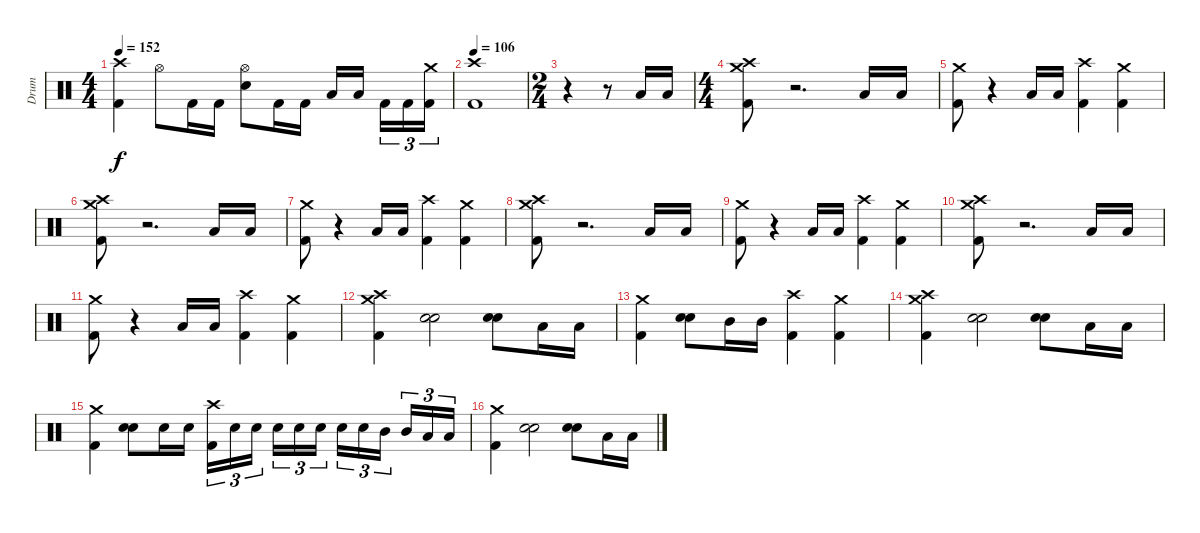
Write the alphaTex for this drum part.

\track ("Drum" "Drum") {instrument percussion}
\staff {score}
\articulation defaults
\ts (4 4)
\tempo 152
\clef neutral
\ks c
("Crash high (hit)" "Kick (hit) 2").4{dy f} "Hi-Hat (open)".8 "Kick (hit) 2".16 "Kick (hit) 2".16 ("Hi-Hat (open)" "Snare (hit) 2").8 "Kick (hit) 2".16 "Kick (hit) 2".16 "Low Tom (hit)".16 "Low Tom (hit)".16{beam splitsecondary} "Kick (hit) 2".16{tu (3 2)} "Kick (hit) 2".16{tu (3 2)} ("Crash medium (hit)" "Kick (hit) 2").16{tu (3 2)} |
\tempo 106
("Crash high (hit)" "Kick (hit) 2").1 |
\ts (2 4)
r.4 r.8 "Low Tom (hit)".16 "Low Tom (hit)".16 |
\ts (4 4)
("Crash medium (hit)" "Crash high (hit)" "Kick (hit) 2").8 r.2{d} "Low Tom (hit)".16 "Low Tom (hit)".16 |
("Crash medium (hit)" "Kick (hit) 2").8 r.4 "Low Tom (hit)".16 "Low Tom (hit)".16 ("Crash high (hit)" "Kick (hit) 2").4 ("Crash medium (hit)" "Kick (hit) 2").4 |
("Crash medium (hit)" "Crash high (hit)" "Kick (hit) 2").8 r.2{d} "Low Tom (hit)".16 "Low Tom (hit)".16 |
("Crash medium (hit)" "Kick (hit) 2").8 r.4 "Low Tom (hit)".16 "Low Tom (hit)".16 ("Crash high (hit)" "Kick (hit) 2").4 ("Crash medium (hit)" "Kick (hit) 2").4 |
("Crash medium (hit)" "Crash high (hit)" "Kick (hit) 2").8 r.2{d} "Low Tom (hit)".16 "Low Tom (hit)".16 |
("Crash medium (hit)" "Kick (hit) 2").8 r.4 "Low Tom (hit)".16 "Low Tom (hit)".16 ("Crash high (hit)" "Kick (hit) 2").4 ("Crash medium (hit)" "Kick (hit) 2").4 |
("Crash medium (hit)" "Crash high (hit)" "Kick (hit) 2").8 r.2{d} "Low Tom (hit)".16 "Low Tom (hit)".16 |
("Crash medium (hit)" "Kick (hit) 2").8 r.4 "Low Tom (hit)".16 "Low Tom (hit)".16 ("Crash high (hit)" "Kick (hit) 2").4 ("Crash medium (hit)" "Kick (hit) 2").4 |
("Crash high (hit)" "Crash medium (hit)" "Kick (hit) 2").4 ("Snare (hit) 2" "Snare (hit) 2").2 ("Snare (hit) 2" "Snare (hit) 2").8 "Low Tom (hit)".16 "Low Tom (hit)".16 |
("Crash medium (hit)" "Kick (hit) 2").4 ("Snare (hit) 2" "Snare (hit) 2").8 "Mid Tom (hit)".16 "Mid Tom (hit)".16 ("Crash high (hit)" "Kick (hit) 2").4 ("Crash medium (hit)" "Kick (hit) 2").4 |
("Crash high (hit)" "Crash medium (hit)" "Kick (hit) 2").4 ("Snare (hit) 2" "Snare (hit) 2").2 ("Snare (hit) 2" "Snare (hit) 2").8 "Low Tom (hit)".16 "Low Tom (hit)".16 |
("Crash medium (hit)" "Kick (hit) 2").4 ("Snare (hit) 2" "Snare (hit) 2").8 "Snare (hit) 2".16 "Snare (hit) 2".16 ("Crash high (hit)" "Kick (hit) 2").16{tu (3 2)} "Snare (hit) 2".16{tu (3 2)} "Snare (hit) 2".16{tu (3 2) beam splitsecondary} "Snare (hit) 2".16{tu (3 2)} "Snare (hit) 2".16{tu (3 2)} "Snare (hit) 2".16{tu (3 2)} "Snare (hit) 2".16{tu (3 2)} "Snare (hit) 2".16{tu (3 2)} "Mid Tom (hit)".16{tu (3 2) beam splitsecondary} "Mid Tom (hit)".16{tu (3 2)} "Low Tom (hit)".16{tu (3 2)} "Low Tom (hit)".16{tu (3 2)} |
("Crash medium (hit)" "Kick (hit) 2").4 ("Snare (hit) 2" "Snare (hit) 2").2 ("Snare (hit) 2" "Snare (hit) 2").8 "Low Tom (hit)".16 "Low Tom (hit)".16
